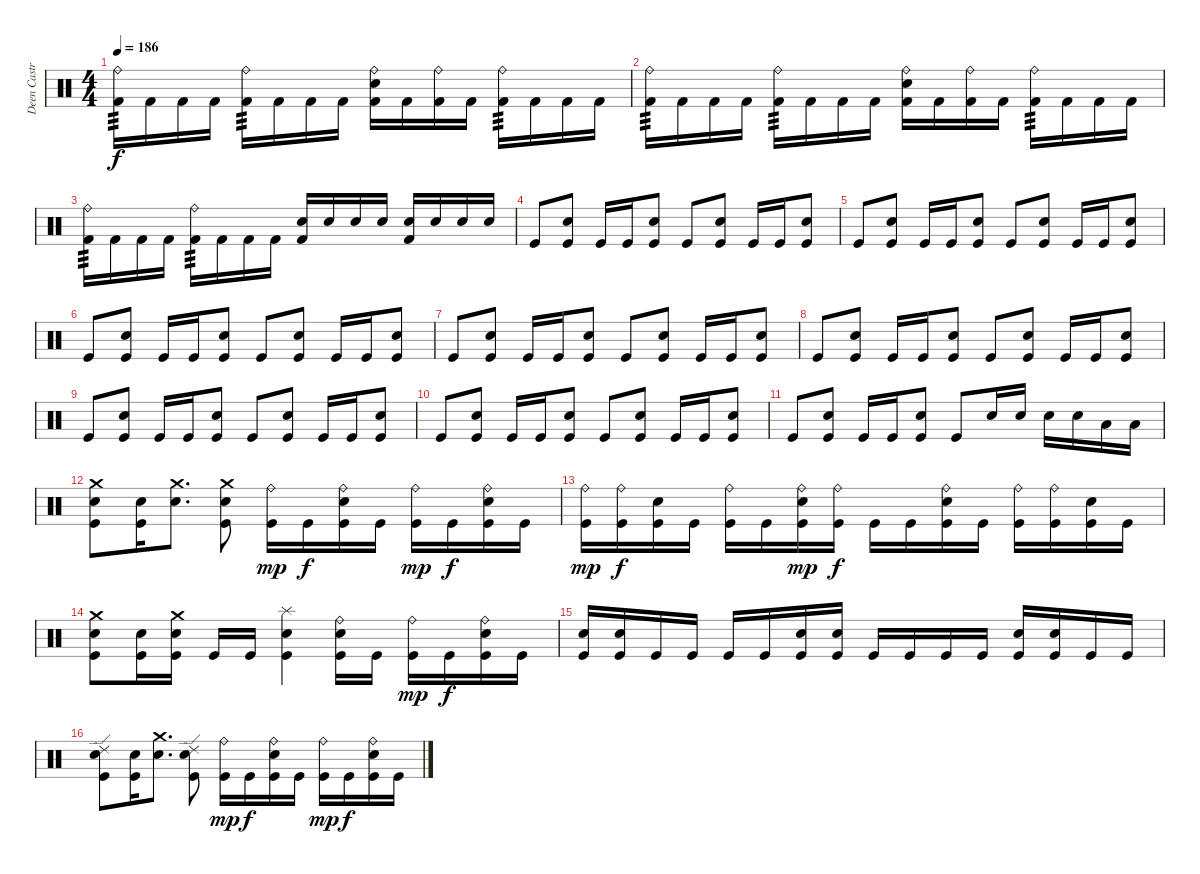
\track ("Deen Castronovo" "Deen Castr") {instrument percussion}
\staff {score}
\articulation defaults
\ts (4 4)
\tempo 186
\clef neutral
\ks c
("Ride (bell)" "Kick (hit) 2").16{tp 3 dy f} "Kick (hit) 2".16 "Kick (hit) 2".16 "Kick (hit) 2".16 ("Ride (bell)" "Kick (hit) 2").16{tp 3} "Kick (hit) 2".16 "Kick (hit) 2".16 "Kick (hit) 2".16 ("Ride (bell)" "Snare (hit) 2" "Kick (hit) 2").16 "Kick (hit) 2".16 ("Ride (bell)" "Kick (hit) 2").16 "Kick (hit) 2".16 ("Ride (bell)" "Kick (hit) 2").16{tp 3} "Kick (hit) 2".16 "Kick (hit) 2".16 "Kick (hit) 2".16 |
("Ride (bell)" "Kick (hit) 2").16{tp 3} "Kick (hit) 2".16 "Kick (hit) 2".16 "Kick (hit) 2".16 ("Ride (bell)" "Kick (hit) 2").16{tp 3} "Kick (hit) 2".16 "Kick (hit) 2".16 "Kick (hit) 2".16 ("Ride (bell)" "Snare (hit) 2" "Kick (hit) 2").16 "Kick (hit) 2".16 ("Ride (bell)" "Kick (hit) 2").16 "Kick (hit) 2".16 ("Ride (bell)" "Kick (hit) 2").16{tp 3} "Kick (hit) 2".16 "Kick (hit) 2".16 "Kick (hit) 2".16 |
("Ride (bell)" "Kick (hit) 2").16{tp 3} "Kick (hit) 2".16 "Kick (hit) 2".16 "Kick (hit) 2".16 ("Ride (bell)" "Kick (hit) 2").16{tp 3} "Kick (hit) 2".16 "Kick (hit) 2".16 "Kick (hit) 2".16 ("Snare (hit) 2" "Kick (hit) 2").16 "Snare (hit) 2".16 "Snare (hit) 2".16 "Snare (hit) 2".16 ("Snare (hit) 2" "Kick (hit) 2").16 "Snare (hit) 2".16 "Snare (hit) 2".16 "Snare (hit) 2".16 |
"Kick (hit)".8 ("Snare (hit) 2" "Kick (hit)").8 "Kick (hit)".16 "Kick (hit)".16 ("Snare (hit) 2" "Kick (hit)").8 "Kick (hit)".8 ("Snare (hit) 2" "Kick (hit)").8 "Kick (hit)".16 "Kick (hit)".16 ("Snare (hit) 2" "Kick (hit)").8 |
"Kick (hit)".8 ("Snare (hit) 2" "Kick (hit)").8 "Kick (hit)".16 "Kick (hit)".16 ("Snare (hit) 2" "Kick (hit)").8 "Kick (hit)".8 ("Snare (hit) 2" "Kick (hit)").8 "Kick (hit)".16 "Kick (hit)".16 ("Snare (hit) 2" "Kick (hit)").8 |
"Kick (hit)".8 ("Snare (hit) 2" "Kick (hit)").8 "Kick (hit)".16 "Kick (hit)".16 ("Snare (hit) 2" "Kick (hit)").8 "Kick (hit)".8 ("Snare (hit) 2" "Kick (hit)").8 "Kick (hit)".16 "Kick (hit)".16 ("Snare (hit) 2" "Kick (hit)").8 |
"Kick (hit)".8 ("Snare (hit) 2" "Kick (hit)").8 "Kick (hit)".16 "Kick (hit)".16 ("Snare (hit) 2" "Kick (hit)").8 "Kick (hit)".8 ("Snare (hit) 2" "Kick (hit)").8 "Kick (hit)".16 "Kick (hit)".16 ("Snare (hit) 2" "Kick (hit)").8 |
"Kick (hit)".8 ("Snare (hit) 2" "Kick (hit)").8 "Kick (hit)".16 "Kick (hit)".16 ("Snare (hit) 2" "Kick (hit)").8 "Kick (hit)".8 ("Snare (hit) 2" "Kick (hit)").8 "Kick (hit)".16 "Kick (hit)".16 ("Snare (hit) 2" "Kick (hit)").8 |
"Kick (hit)".8 ("Snare (hit) 2" "Kick (hit)").8 "Kick (hit)".16 "Kick (hit)".16 ("Snare (hit) 2" "Kick (hit)").8 "Kick (hit)".8 ("Snare (hit) 2" "Kick (hit)").8 "Kick (hit)".16 "Kick (hit)".16 ("Snare (hit) 2" "Kick (hit)").8 |
"Kick (hit)".8 ("Snare (hit) 2" "Kick (hit)").8 "Kick (hit)".16 "Kick (hit)".16 ("Snare (hit) 2" "Kick (hit)").8 "Kick (hit)".8 ("Snare (hit) 2" "Kick (hit)").8 "Kick (hit)".16 "Kick (hit)".16 ("Snare (hit) 2" "Kick (hit)").8 |
"Kick (hit)".8 ("Snare (hit) 2" "Kick (hit)").8 "Kick (hit)".16 "Kick (hit)".16 ("Snare (hit) 2" "Kick (hit)").8 "Kick (hit)".8 "Snare (hit) 2".16 "Snare (hit) 2".16 "Snare (hit) 2".16 "Snare (hit) 2".16 "Low Tom (hit)".16 "Low Tom (hit)".16 |
("Crash medium (hit)" "Snare (hit) 2" "Kick (hit)").8 ("Snare (hit) 2" "Kick (hit)").16 ("Crash medium (hit)" "Snare (hit) 2").8{d} ("Crash medium (hit)" "Snare (hit) 2" "Kick (hit)").8 ("Ride (bell)" "Kick (hit)").16{dy mp} "Kick (hit)".16{dy f} ("Ride (bell)" "Snare (hit) 2" "Kick (hit)").16 "Kick (hit)".16 ("Ride (bell)" "Kick (hit)").16{dy mp} "Kick (hit)".16{dy f} ("Ride (bell)" "Snare (hit) 2" "Kick (hit)").16 "Kick (hit)".16 |
("Ride (bell)" "Kick (hit)").16{dy mp} ("Ride (bell)" "Kick (hit)").16{dy f} ("Snare (hit) 2" "Kick (hit)").16 "Kick (hit)".16 ("Ride (bell)" "Kick (hit)").16 "Kick (hit)".16 ("Ride (bell)" "Snare (hit) 2" "Kick (hit)").16{dy mp} ("Ride (bell)" "Kick (hit)").16{dy f} "Kick (hit)".16 "Kick (hit)".16 ("Ride (bell)" "Snare (hit) 2" "Kick (hit)").16 "Kick (hit)".16 ("Ride (bell)" "Kick (hit)").16 ("Ride (bell)" "Kick (hit)").16 ("Snare (hit) 2" "Kick (hit)").16 "Kick (hit)".16 |
("Crash medium (hit)" "Snare (hit) 2" "Kick (hit)").8 ("Snare (hit) 2" "Kick (hit)").16 ("Crash medium (hit)" "Snare (hit) 2" "Kick (hit)").16 "Kick (hit)".16 "Kick (hit)".16 ("Splash (hit)" "Snare (hit) 2" "Kick (hit)").4 ("Ride (bell)" "Snare (hit) 2" "Kick (hit)").16 "Kick (hit)".16 ("Ride (bell)" "Kick (hit)").16{dy mp} "Kick (hit)".16{dy f} ("Ride (bell)" "Snare (hit) 2" "Kick (hit)").16 "Kick (hit)".16 |
("Snare (hit) 2" "Kick (hit)").16 ("Snare (hit) 2" "Kick (hit)").16 "Kick (hit)".16 "Kick (hit)".16 "Kick (hit)".16 "Kick (hit)".16 ("Snare (hit) 2" "Kick (hit)").16 ("Snare (hit) 2" "Kick (hit)").16 "Kick (hit)".16 "Kick (hit)".16 "Kick (hit)".16 "Kick (hit)".16 ("Snare (hit) 2" "Kick (hit)").16 ("Snare (hit) 2" "Kick (hit)").16 "Kick (hit)".16 "Kick (hit)".16 |
("Ride (edge) 2" "Snare (hit) 2" "Kick (hit)").8 ("Snare (hit) 2" "Kick (hit)").16 ("Crash medium (hit)" "Snare (hit) 2").8{d} ("Ride (edge) 2" "Snare (hit) 2" "Kick (hit)").8 ("Ride (bell)" "Kick (hit)").16{dy mp} "Kick (hit)".16{dy f} ("Ride (bell)" "Snare (hit) 2" "Kick (hit)").16 "Kick (hit)".16 ("Ride (bell)" "Kick (hit)").16{dy mp} "Kick (hit)".16{dy f} ("Ride (bell)" "Snare (hit) 2" "Kick (hit)").16 "Kick (hit)".16
